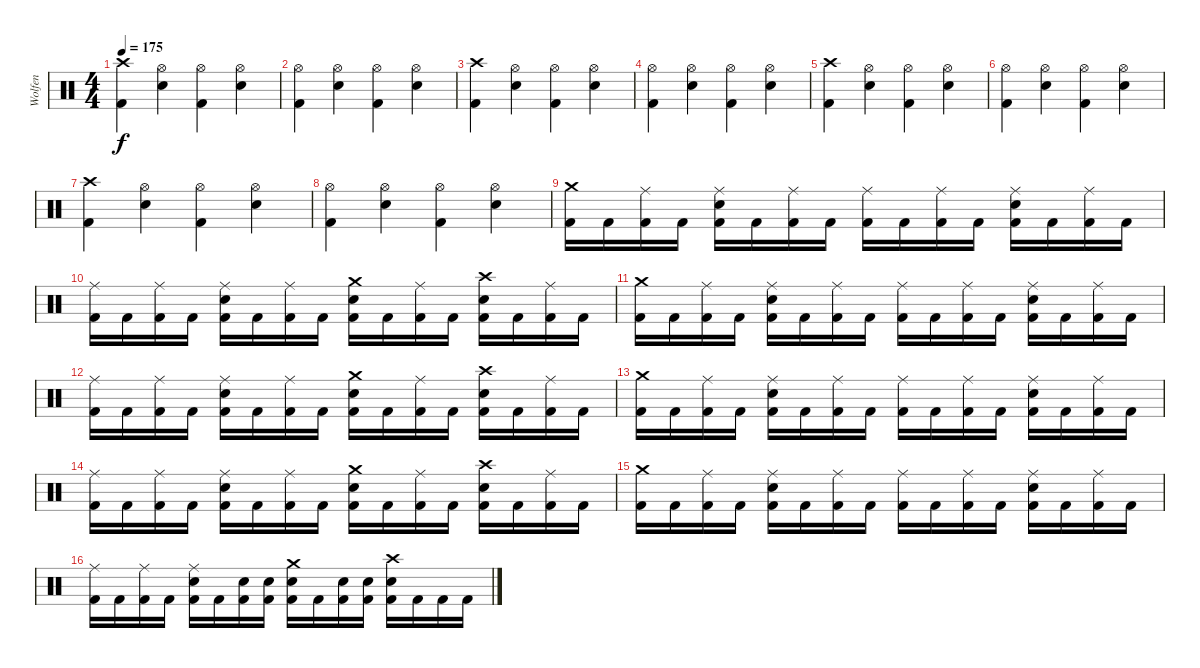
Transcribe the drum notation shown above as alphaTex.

\track ("Wolfen" "Wolfen") {instrument percussion}
\staff {score}
\articulation defaults
\ts (4 4)
\tempo 175
\clef neutral
\ks c
("Crash high (hit)" "Kick (hit) 2").4{dy f} ("Hi-Hat (open)" "Electric Snare (hit)").4 ("Hi-Hat (open)" "Kick (hit) 2").4 ("Hi-Hat (open)" "Electric Snare (hit)").4 |
("Hi-Hat (open)" "Kick (hit) 2").4 ("Hi-Hat (open)" "Electric Snare (hit)").4 ("Hi-Hat (open)" "Kick (hit) 2").4 ("Hi-Hat (open)" "Electric Snare (hit)").4 |
("Crash high (hit)" "Kick (hit) 2").4 ("Hi-Hat (open)" "Electric Snare (hit)").4 ("Hi-Hat (open)" "Kick (hit) 2").4 ("Hi-Hat (open)" "Electric Snare (hit)").4 |
("Hi-Hat (open)" "Kick (hit) 2").4 ("Hi-Hat (open)" "Electric Snare (hit)").4 ("Hi-Hat (open)" "Kick (hit) 2").4 ("Hi-Hat (open)" "Electric Snare (hit)").4 |
("Crash high (hit)" "Kick (hit) 2").4 ("Hi-Hat (open)" "Electric Snare (hit)").4 ("Hi-Hat (open)" "Kick (hit) 2").4 ("Hi-Hat (open)" "Electric Snare (hit)").4 |
("Hi-Hat (open)" "Kick (hit) 2").4 ("Hi-Hat (open)" "Electric Snare (hit)").4 ("Hi-Hat (open)" "Kick (hit) 2").4 ("Hi-Hat (open)" "Electric Snare (hit)").4 |
("Crash high (hit)" "Kick (hit) 2").4 ("Hi-Hat (open)" "Electric Snare (hit)").4 ("Hi-Hat (open)" "Kick (hit) 2").4 ("Hi-Hat (open)" "Electric Snare (hit)").4 |
("Hi-Hat (open)" "Kick (hit) 2").4 ("Hi-Hat (open)" "Electric Snare (hit)").4 ("Hi-Hat (open)" "Kick (hit) 2").4 ("Hi-Hat (open)" "Electric Snare (hit)").4 |
("Crash medium (hit)" "Kick (hit) 2").16 "Kick (hit) 2".16 ("Ride (middle)" "Kick (hit) 2").16 "Kick (hit) 2".16 ("Ride (middle)" "Electric Snare (hit)" "Kick (hit) 2").16 "Kick (hit) 2".16 ("Ride (middle)" "Kick (hit) 2").16 "Kick (hit) 2".16 ("Ride (middle)" "Kick (hit) 2").16 "Kick (hit) 2".16 ("Ride (middle)" "Kick (hit) 2").16 "Kick (hit) 2".16 ("Ride (middle)" "Electric Snare (hit)" "Kick (hit) 2").16 "Kick (hit) 2".16 ("Ride (middle)" "Kick (hit) 2").16 "Kick (hit) 2".16 |
("Ride (middle)" "Kick (hit) 2").16 "Kick (hit) 2".16 ("Ride (middle)" "Kick (hit) 2").16 "Kick (hit) 2".16 ("Ride (middle)" "Electric Snare (hit)" "Kick (hit) 2").16 "Kick (hit) 2".16 ("Ride (middle)" "Kick (hit) 2").16 "Kick (hit) 2".16 ("Crash medium (hit)" "Electric Snare (hit)" "Kick (hit) 2").16 "Kick (hit) 2".16 ("Ride (middle)" "Kick (hit) 2").16 "Kick (hit) 2".16 ("Crash high (hit)" "Electric Snare (hit)" "Kick (hit) 2").16 "Kick (hit) 2".16 ("Ride (middle)" "Kick (hit) 2").16 "Kick (hit) 2".16 |
("Crash medium (hit)" "Kick (hit) 2").16 "Kick (hit) 2".16 ("Ride (middle)" "Kick (hit) 2").16 "Kick (hit) 2".16 ("Ride (middle)" "Electric Snare (hit)" "Kick (hit) 2").16 "Kick (hit) 2".16 ("Ride (middle)" "Kick (hit) 2").16 "Kick (hit) 2".16 ("Ride (middle)" "Kick (hit) 2").16 "Kick (hit) 2".16 ("Ride (middle)" "Kick (hit) 2").16 "Kick (hit) 2".16 ("Ride (middle)" "Electric Snare (hit)" "Kick (hit) 2").16 "Kick (hit) 2".16 ("Ride (middle)" "Kick (hit) 2").16 "Kick (hit) 2".16 |
("Ride (middle)" "Kick (hit) 2").16 "Kick (hit) 2".16 ("Ride (middle)" "Kick (hit) 2").16 "Kick (hit) 2".16 ("Ride (middle)" "Electric Snare (hit)" "Kick (hit) 2").16 "Kick (hit) 2".16 ("Ride (middle)" "Kick (hit) 2").16 "Kick (hit) 2".16 ("Crash medium (hit)" "Electric Snare (hit)" "Kick (hit) 2").16 "Kick (hit) 2".16 ("Ride (middle)" "Kick (hit) 2").16 "Kick (hit) 2".16 ("Crash high (hit)" "Electric Snare (hit)" "Kick (hit) 2").16 "Kick (hit) 2".16 ("Ride (middle)" "Kick (hit) 2").16 "Kick (hit) 2".16 |
("Crash medium (hit)" "Kick (hit) 2").16 "Kick (hit) 2".16 ("Ride (middle)" "Kick (hit) 2").16 "Kick (hit) 2".16 ("Ride (middle)" "Electric Snare (hit)" "Kick (hit) 2").16 "Kick (hit) 2".16 ("Ride (middle)" "Kick (hit) 2").16 "Kick (hit) 2".16 ("Ride (middle)" "Kick (hit) 2").16 "Kick (hit) 2".16 ("Ride (middle)" "Kick (hit) 2").16 "Kick (hit) 2".16 ("Ride (middle)" "Electric Snare (hit)" "Kick (hit) 2").16 "Kick (hit) 2".16 ("Ride (middle)" "Kick (hit) 2").16 "Kick (hit) 2".16 |
("Ride (middle)" "Kick (hit) 2").16 "Kick (hit) 2".16 ("Ride (middle)" "Kick (hit) 2").16 "Kick (hit) 2".16 ("Ride (middle)" "Electric Snare (hit)" "Kick (hit) 2").16 "Kick (hit) 2".16 ("Ride (middle)" "Kick (hit) 2").16 "Kick (hit) 2".16 ("Crash medium (hit)" "Electric Snare (hit)" "Kick (hit) 2").16 "Kick (hit) 2".16 ("Ride (middle)" "Kick (hit) 2").16 "Kick (hit) 2".16 ("Crash high (hit)" "Electric Snare (hit)" "Kick (hit) 2").16 "Kick (hit) 2".16 ("Ride (middle)" "Kick (hit) 2").16 "Kick (hit) 2".16 |
("Crash medium (hit)" "Kick (hit) 2").16 "Kick (hit) 2".16 ("Ride (middle)" "Kick (hit) 2").16 "Kick (hit) 2".16 ("Ride (middle)" "Electric Snare (hit)" "Kick (hit) 2").16 "Kick (hit) 2".16 ("Ride (middle)" "Kick (hit) 2").16 "Kick (hit) 2".16 ("Ride (middle)" "Kick (hit) 2").16 "Kick (hit) 2".16 ("Ride (middle)" "Kick (hit) 2").16 "Kick (hit) 2".16 ("Ride (middle)" "Electric Snare (hit)" "Kick (hit) 2").16 "Kick (hit) 2".16 ("Ride (middle)" "Kick (hit) 2").16 "Kick (hit) 2".16 |
("Ride (middle)" "Kick (hit) 2").16 "Kick (hit) 2".16 ("Ride (middle)" "Kick (hit) 2").16 "Kick (hit) 2".16 ("Ride (middle)" "Electric Snare (hit)" "Kick (hit) 2").16 "Kick (hit) 2".16 ("Electric Snare (hit)" "Kick (hit) 2").16 ("Electric Snare (hit)" "Kick (hit) 2").16 ("Crash medium (hit)" "Electric Snare (hit)" "Kick (hit) 2").16 "Kick (hit) 2".16 ("Electric Snare (hit)" "Kick (hit) 2").16 ("Electric Snare (hit)" "Kick (hit) 2").16 ("Crash high (hit)" "Electric Snare (hit)" "Kick (hit) 2").16 "Kick (hit) 2".16 "Kick (hit) 2".16 "Kick (hit) 2".16
